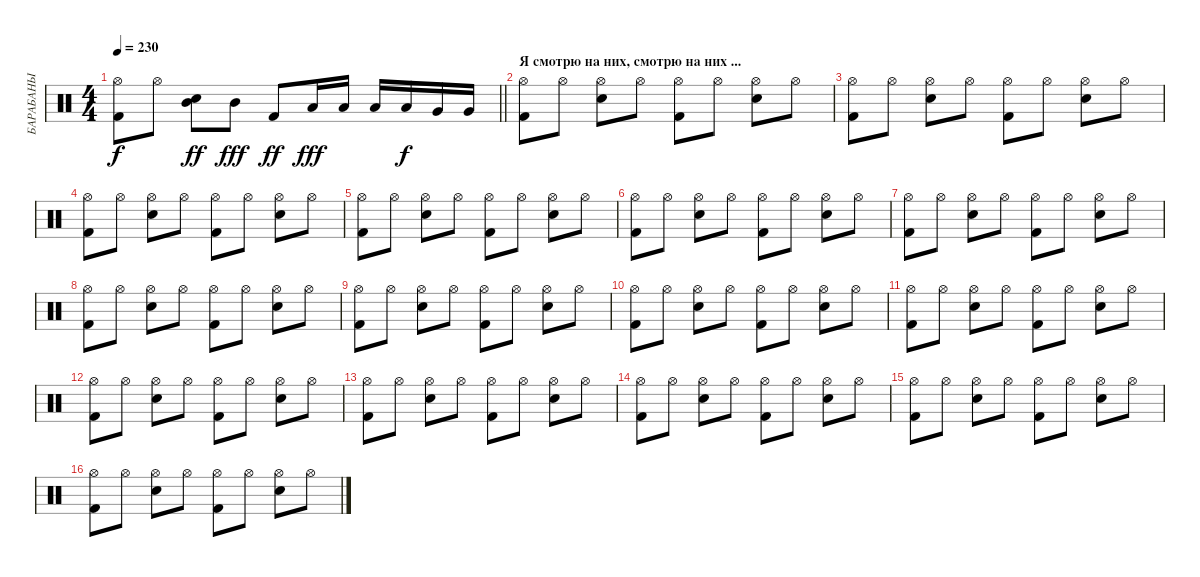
\track ("БАРАБАНЫ" "БАРАБАНЫ") {instrument percussion}
\staff {score}
\articulation defaults
\ts (4 4)
\tempo 230
\clef neutral
\barLineRight lightlight
\ks c
("Hi-Hat (open)" "Kick (hit) 2").8{dy f} "Hi-Hat (open)".8 ("Mid Tom (hit)" "Electric Snare (hit)").8{dy ff} "Mid Tom (hit)".8{dy fff} "Kick (hit) 2".8{dy ff} "Low Tom (hit)".16{dy fff} "Low Tom (hit)".16 "Low Tom (hit)".16 "Low Tom (hit)".16{dy f} "Very Low Tom (hit)".16 "Very Low Tom (hit)".16 |
\section ("" "Я смотрю на них, смотрю на них ...")
("Hi-Hat (open)" "Kick (hit) 2").8 "Hi-Hat (open)".8 ("Hi-Hat (open)" "Electric Snare (hit)").8 "Hi-Hat (open)".8 ("Hi-Hat (open)" "Kick (hit) 2").8 "Hi-Hat (open)".8 ("Hi-Hat (open)" "Electric Snare (hit)").8 "Hi-Hat (open)".8 |
("Hi-Hat (open)" "Kick (hit) 2").8 "Hi-Hat (open)".8 ("Hi-Hat (open)" "Electric Snare (hit)").8 "Hi-Hat (open)".8 ("Hi-Hat (open)" "Kick (hit) 2").8 "Hi-Hat (open)".8 ("Hi-Hat (open)" "Electric Snare (hit)").8 "Hi-Hat (open)".8 |
("Hi-Hat (open)" "Kick (hit) 2").8 "Hi-Hat (open)".8 ("Hi-Hat (open)" "Electric Snare (hit)").8 "Hi-Hat (open)".8 ("Hi-Hat (open)" "Kick (hit) 2").8 "Hi-Hat (open)".8 ("Hi-Hat (open)" "Electric Snare (hit)").8 "Hi-Hat (open)".8 |
("Hi-Hat (open)" "Kick (hit) 2").8 "Hi-Hat (open)".8 ("Hi-Hat (open)" "Electric Snare (hit)").8 "Hi-Hat (open)".8 ("Hi-Hat (open)" "Kick (hit) 2").8 "Hi-Hat (open)".8 ("Hi-Hat (open)" "Electric Snare (hit)").8 "Hi-Hat (open)".8 |
("Hi-Hat (open)" "Kick (hit) 2").8 "Hi-Hat (open)".8 ("Hi-Hat (open)" "Electric Snare (hit)").8 "Hi-Hat (open)".8 ("Hi-Hat (open)" "Kick (hit) 2").8 "Hi-Hat (open)".8 ("Hi-Hat (open)" "Electric Snare (hit)").8 "Hi-Hat (open)".8 |
("Hi-Hat (open)" "Kick (hit) 2").8 "Hi-Hat (open)".8 ("Hi-Hat (open)" "Electric Snare (hit)").8 "Hi-Hat (open)".8 ("Hi-Hat (open)" "Kick (hit) 2").8 "Hi-Hat (open)".8 ("Hi-Hat (open)" "Electric Snare (hit)").8 "Hi-Hat (open)".8 |
("Hi-Hat (open)" "Kick (hit) 2").8 "Hi-Hat (open)".8 ("Hi-Hat (open)" "Electric Snare (hit)").8 "Hi-Hat (open)".8 ("Hi-Hat (open)" "Kick (hit) 2").8 "Hi-Hat (open)".8 ("Hi-Hat (open)" "Electric Snare (hit)").8 "Hi-Hat (open)".8 |
("Hi-Hat (open)" "Kick (hit) 2").8 "Hi-Hat (open)".8 ("Hi-Hat (open)" "Electric Snare (hit)").8 "Hi-Hat (open)".8 ("Hi-Hat (open)" "Kick (hit) 2").8 "Hi-Hat (open)".8 ("Hi-Hat (open)" "Electric Snare (hit)").8 "Hi-Hat (open)".8 |
("Hi-Hat (open)" "Kick (hit) 2").8 "Hi-Hat (open)".8 ("Hi-Hat (open)" "Electric Snare (hit)").8 "Hi-Hat (open)".8 ("Hi-Hat (open)" "Kick (hit) 2").8 "Hi-Hat (open)".8 ("Hi-Hat (open)" "Electric Snare (hit)").8 "Hi-Hat (open)".8 |
("Hi-Hat (open)" "Kick (hit) 2").8 "Hi-Hat (open)".8 ("Hi-Hat (open)" "Electric Snare (hit)").8 "Hi-Hat (open)".8 ("Hi-Hat (open)" "Kick (hit) 2").8 "Hi-Hat (open)".8 ("Hi-Hat (open)" "Electric Snare (hit)").8 "Hi-Hat (open)".8 |
("Hi-Hat (open)" "Kick (hit) 2").8 "Hi-Hat (open)".8 ("Hi-Hat (open)" "Electric Snare (hit)").8 "Hi-Hat (open)".8 ("Hi-Hat (open)" "Kick (hit) 2").8 "Hi-Hat (open)".8 ("Hi-Hat (open)" "Electric Snare (hit)").8 "Hi-Hat (open)".8 |
("Hi-Hat (open)" "Kick (hit) 2").8 "Hi-Hat (open)".8 ("Hi-Hat (open)" "Electric Snare (hit)").8 "Hi-Hat (open)".8 ("Hi-Hat (open)" "Kick (hit) 2").8 "Hi-Hat (open)".8 ("Hi-Hat (open)" "Electric Snare (hit)").8 "Hi-Hat (open)".8 |
("Hi-Hat (open)" "Kick (hit) 2").8 "Hi-Hat (open)".8 ("Hi-Hat (open)" "Electric Snare (hit)").8 "Hi-Hat (open)".8 ("Hi-Hat (open)" "Kick (hit) 2").8 "Hi-Hat (open)".8 ("Hi-Hat (open)" "Electric Snare (hit)").8 "Hi-Hat (open)".8 |
("Hi-Hat (open)" "Kick (hit) 2").8 "Hi-Hat (open)".8 ("Hi-Hat (open)" "Electric Snare (hit)").8 "Hi-Hat (open)".8 ("Hi-Hat (open)" "Kick (hit) 2").8 "Hi-Hat (open)".8 ("Hi-Hat (open)" "Electric Snare (hit)").8 "Hi-Hat (open)".8 |
("Hi-Hat (open)" "Kick (hit) 2").8 "Hi-Hat (open)".8 ("Hi-Hat (open)" "Electric Snare (hit)").8 "Hi-Hat (open)".8 ("Hi-Hat (open)" "Kick (hit) 2").8 "Hi-Hat (open)".8 ("Hi-Hat (open)" "Electric Snare (hit)").8 "Hi-Hat (open)".8
